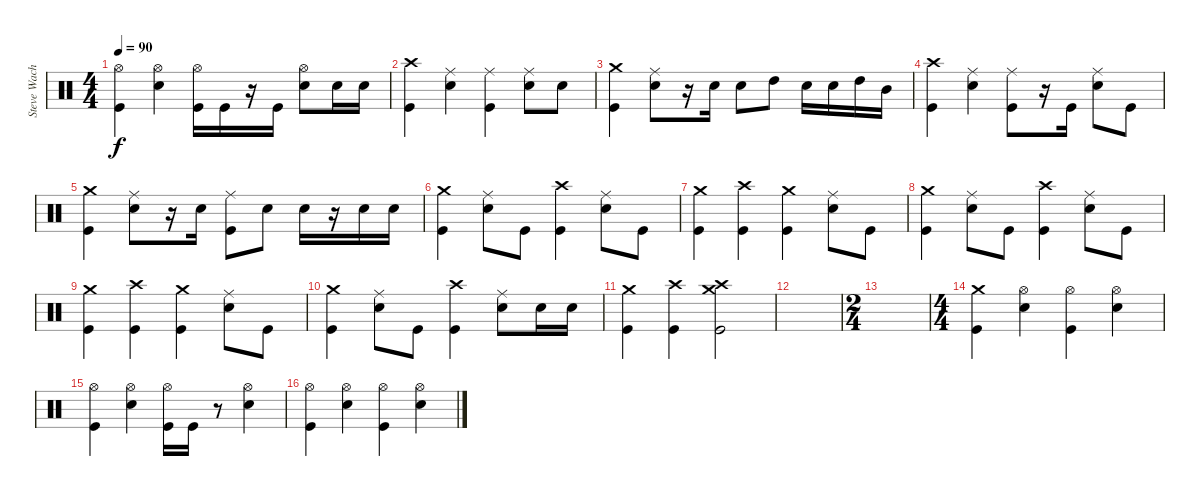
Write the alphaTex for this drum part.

\track ("Steve Wacholz" "Steve Wach") {instrument percussion}
\staff {score}
\articulation defaults
\ts (4 4)
\tempo 90
\clef neutral
\ks c
("Hi-Hat (open)" "Kick (hit)").4{dy f} ("Hi-Hat (open)" "Electric Snare (hit)").4 ("Hi-Hat (open)" "Kick (hit)").16 "Kick (hit)".16 r.16 "Kick (hit)".16 ("Hi-Hat (open)" "Electric Snare (hit)").8 "Electric Snare (hit)".16 "Electric Snare (hit)".16 |
("Crash high (hit)" "Kick (hit)").4 ("Ride (middle)" "Electric Snare (hit)").4 ("Ride (middle)" "Kick (hit)").4 ("Ride (middle)" "Electric Snare (hit)").8 "Electric Snare (hit)".8 |
("Crash medium (hit)" "Kick (hit)").4 ("Ride (middle)" "Electric Snare (hit)").8 r.16 "Electric Snare (hit)".16 "Electric Snare (hit)".8 "High Tom (hit)".8 "Electric Snare (hit)".16 "Electric Snare (hit)".16 "High Tom (hit)".16 "Mid Tom (hit)".16 |
("Crash high (hit)" "Kick (hit)").4 ("Ride (middle)" "Electric Snare (hit)").4 ("Ride (middle)" "Kick (hit)").8 r.16 "Kick (hit)".16 ("Ride (middle)" "Electric Snare (hit)").8 "Kick (hit)".8 |
("Crash medium (hit)" "Kick (hit)").4 ("Ride (middle)" "Electric Snare (hit)").8 r.16 "Electric Snare (hit)".16 ("Ride (middle)" "Kick (hit)").8 "Electric Snare (hit)".8 "Electric Snare (hit)".16 r.16 "Electric Snare (hit)".16 "Electric Snare (hit)".16 |
("Crash medium (hit)" "Kick (hit)").4 ("Ride (middle)" "Electric Snare (hit)").8 "Kick (hit)".8 ("Crash high (hit)" "Kick (hit)").4 ("Ride (middle)" "Electric Snare (hit)").8 "Kick (hit)".8 |
("Crash medium (hit)" "Kick (hit)").4 ("Crash high (hit)" "Kick (hit)").4 ("Crash medium (hit)" "Kick (hit)").4 ("Ride (middle)" "Electric Snare (hit)").8 "Kick (hit)".8 |
("Crash medium (hit)" "Kick (hit)").4 ("Ride (middle)" "Electric Snare (hit)").8 "Kick (hit)".8 ("Crash high (hit)" "Kick (hit)").4 ("Ride (middle)" "Electric Snare (hit)").8 "Kick (hit)".8 |
("Crash medium (hit)" "Kick (hit)").4 ("Crash high (hit)" "Kick (hit)").4 ("Crash medium (hit)" "Kick (hit)").4 ("Ride (middle)" "Electric Snare (hit)").8 "Kick (hit)".8 |
("Crash medium (hit)" "Kick (hit)").4 ("Ride (middle)" "Electric Snare (hit)").8 "Kick (hit)".8 ("Crash high (hit)" "Kick (hit)").4 ("Ride (middle)" "Electric Snare (hit)").8 "Electric Snare (hit)".16 "Electric Snare (hit)".16 |
("Crash medium (hit)" "Kick (hit)").4 ("Crash high (hit)" "Kick (hit)").4 ("Crash medium (hit)" "Crash high (hit)" "Kick (hit)").2 |
|
\ts (2 4)
|
\ts (4 4)
("Crash medium (hit)" "Kick (hit)").4 ("Hi-Hat (open)" "Electric Snare (hit)").4 ("Hi-Hat (open)" "Kick (hit)").4 ("Hi-Hat (open)" "Electric Snare (hit)").4 |
("Hi-Hat (open)" "Kick (hit)").4 ("Hi-Hat (open)" "Electric Snare (hit)").4 ("Hi-Hat (open)" "Kick (hit)").16 "Kick (hit)".16 r.8 ("Hi-Hat (open)" "Electric Snare (hit)").4 |
("Hi-Hat (open)" "Kick (hit)").4 ("Hi-Hat (open)" "Electric Snare (hit)").4 ("Hi-Hat (open)" "Kick (hit)").4 ("Hi-Hat (open)" "Electric Snare (hit)").4
